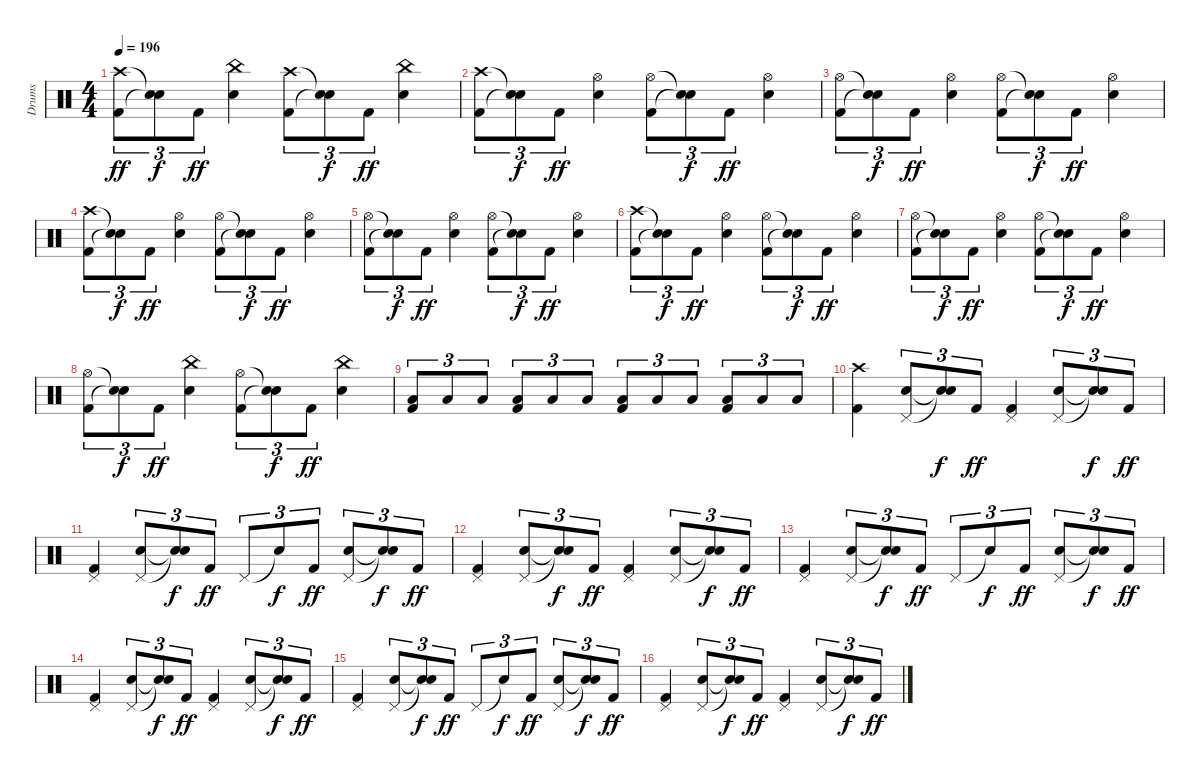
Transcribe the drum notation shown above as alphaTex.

\track ("Drums" "Drums") {instrument percussion}
\staff {score}
\articulation defaults
\ts (4 4)
\tempo 196
\clef neutral
\ks c
("Crash high (hit)" "Kick (hit) 2").8{tu (3 2) dy ff} ("Snare (hit)"{t} "Snare (hit)"{t}).8{tu (3 2) dy f} "Kick (hit) 2".8{tu (3 2) dy ff} ("China (hit)" "Electric Snare (hit)").4 ("Crash high (hit)" "Kick (hit) 2").8{tu (3 2)} ("Snare (hit)"{t} "Snare (hit)"{t}).8{tu (3 2) dy f} "Kick (hit) 2".8{tu (3 2) dy ff} ("China (hit)" "Electric Snare (hit)").4 |
("Kick (hit) 2" "Crash high (hit)").8{tu (3 2)} ("Snare (hit)"{t} "Snare (hit)"{t}).8{tu (3 2) dy f} "Kick (hit) 2".8{tu (3 2) dy ff} ("Hi-Hat (open)" "Electric Snare (hit)").4 ("Kick (hit) 2" "Hi-Hat (open)").8{tu (3 2)} ("Snare (hit)"{t} "Snare (hit)"{t}).8{tu (3 2) dy f} "Kick (hit) 2".8{tu (3 2) dy ff} ("Hi-Hat (open)" "Electric Snare (hit)").4 |
("Kick (hit) 2" "Hi-Hat (open)").8{tu (3 2)} ("Snare (hit)"{t} "Snare (hit)"{t}).8{tu (3 2) dy f} "Kick (hit) 2".8{tu (3 2) dy ff} ("Hi-Hat (open)" "Electric Snare (hit)").4 ("Kick (hit) 2" "Hi-Hat (open)").8{tu (3 2)} ("Snare (hit)"{t} "Snare (hit)"{t}).8{tu (3 2) dy f} "Kick (hit) 2".8{tu (3 2) dy ff} ("Hi-Hat (open)" "Electric Snare (hit)").4 |
("Kick (hit) 2" "Crash high (hit)").8{tu (3 2)} ("Snare (hit)"{t} "Snare (hit)"{t}).8{tu (3 2) dy f} "Kick (hit) 2".8{tu (3 2) dy ff} ("Hi-Hat (open)" "Electric Snare (hit)").4 ("Kick (hit) 2" "Hi-Hat (open)").8{tu (3 2)} ("Snare (hit)"{t} "Snare (hit)"{t}).8{tu (3 2) dy f} "Kick (hit) 2".8{tu (3 2) dy ff} ("Hi-Hat (open)" "Electric Snare (hit)").4 |
("Kick (hit) 2" "Hi-Hat (open)").8{tu (3 2)} ("Snare (hit)"{t} "Snare (hit)"{t}).8{tu (3 2) dy f} "Kick (hit) 2".8{tu (3 2) dy ff} ("Hi-Hat (open)" "Electric Snare (hit)").4 ("Kick (hit) 2" "Hi-Hat (open)").8{tu (3 2)} ("Snare (hit)"{t} "Snare (hit)"{t}).8{tu (3 2) dy f} "Kick (hit) 2".8{tu (3 2) dy ff} ("Hi-Hat (open)" "Electric Snare (hit)").4 |
("Kick (hit) 2" "Crash high (hit)").8{tu (3 2)} ("Snare (hit)"{t} "Snare (hit)"{t}).8{tu (3 2) dy f} "Kick (hit) 2".8{tu (3 2) dy ff} ("Hi-Hat (open)" "Electric Snare (hit)").4 ("Kick (hit) 2" "Hi-Hat (open)").8{tu (3 2)} ("Snare (hit)"{t} "Snare (hit)"{t}).8{tu (3 2) dy f} "Kick (hit) 2".8{tu (3 2) dy ff} ("Hi-Hat (open)" "Electric Snare (hit)").4 |
("Kick (hit) 2" "Hi-Hat (open)").8{tu (3 2)} ("Snare (hit)"{t} "Snare (hit)"{t}).8{tu (3 2) dy f} "Kick (hit) 2".8{tu (3 2) dy ff} ("Hi-Hat (open)" "Electric Snare (hit)").4 ("Kick (hit) 2" "Hi-Hat (open)").8{tu (3 2)} ("Snare (hit)"{t} "Snare (hit)"{t}).8{tu (3 2) dy f} "Kick (hit) 2".8{tu (3 2) dy ff} ("Hi-Hat (open)" "Electric Snare (hit)").4 |
("Hi-Hat (open)" "Kick (hit) 2").8{tu (3 2)} ("Snare (hit)"{t} "Snare (hit)"{t}).8{tu (3 2) dy f} "Kick (hit) 2".8{tu (3 2) dy ff} ("China (hit)" "Electric Snare (hit)").4 ("Hi-Hat (open)" "Kick (hit) 2").8{tu (3 2)} ("Snare (hit)"{t} "Snare (hit)"{t}).8{tu (3 2) dy f} "Kick (hit) 2".8{tu (3 2) dy ff} ("China (hit)" "Electric Snare (hit)").4 |
("Kick (hit) 2" "Low Tom (hit)").8{tu (3 2)} "Low Tom (hit)".8{tu (3 2)} "Low Tom (hit)".8{tu (3 2)} ("Kick (hit) 2" "Low Tom (hit)").8{tu (3 2)} "Low Tom (hit)".8{tu (3 2)} "Low Tom (hit)".8{tu (3 2)} ("Kick (hit) 2" "Low Tom (hit)").8{tu (3 2)} "Low Tom (hit)".8{tu (3 2)} "Low Tom (hit)".8{tu (3 2)} ("Kick (hit) 2" "Low Tom (hit)").8{tu (3 2)} "Low Tom (hit)".8{tu (3 2)} "Low Tom (hit)".8{tu (3 2)} |
("Crash high (hit)" "Kick (hit) 2").4 ("Pedal Hi-Hat (hit)" "Electric Snare (hit)").8{tu (3 2)} ("Snare (hit)"{t} "Snare (hit)"{t}).8{tu (3 2) dy f} "Kick (hit) 2".8{tu (3 2) dy ff} ("Pedal Hi-Hat (hit)" "Kick (hit) 2").4 ("Pedal Hi-Hat (hit)" "Electric Snare (hit)").8{tu (3 2)} ("Snare (hit)"{t} "Snare (hit)"{t}).8{tu (3 2) dy f} "Kick (hit) 2".8{tu (3 2) dy ff} |
("Pedal Hi-Hat (hit)" "Kick (hit) 2").4 ("Pedal Hi-Hat (hit)" "Electric Snare (hit)").8{tu (3 2)} ("Snare (hit)"{t} "Snare (hit)"{t}).8{tu (3 2) dy f} "Kick (hit) 2".8{tu (3 2) dy ff} "Pedal Hi-Hat (hit)".8{tu (3 2)} "Snare (hit)"{t}.8{tu (3 2) dy f} "Kick (hit) 2".8{tu (3 2) dy ff} ("Pedal Hi-Hat (hit)" "Electric Snare (hit)").8{tu (3 2)} ("Snare (hit)"{t} "Snare (hit)"{t}).8{tu (3 2) dy f} "Kick (hit) 2".8{tu (3 2) dy ff} |
("Pedal Hi-Hat (hit)" "Kick (hit) 2").4 ("Pedal Hi-Hat (hit)" "Electric Snare (hit)").8{tu (3 2)} ("Snare (hit)"{t} "Snare (hit)"{t}).8{tu (3 2) dy f} "Kick (hit) 2".8{tu (3 2) dy ff} ("Pedal Hi-Hat (hit)" "Kick (hit) 2").4 ("Pedal Hi-Hat (hit)" "Electric Snare (hit)").8{tu (3 2)} ("Snare (hit)"{t} "Snare (hit)"{t}).8{tu (3 2) dy f} "Kick (hit) 2".8{tu (3 2) dy ff} |
("Pedal Hi-Hat (hit)" "Kick (hit) 2").4 ("Pedal Hi-Hat (hit)" "Electric Snare (hit)").8{tu (3 2)} ("Snare (hit)"{t} "Snare (hit)"{t}).8{tu (3 2) dy f} "Kick (hit) 2".8{tu (3 2) dy ff} "Pedal Hi-Hat (hit)".8{tu (3 2)} "Snare (hit)"{t}.8{tu (3 2) dy f} "Kick (hit) 2".8{tu (3 2) dy ff} ("Pedal Hi-Hat (hit)" "Electric Snare (hit)").8{tu (3 2)} ("Snare (hit)"{t} "Snare (hit)"{t}).8{tu (3 2) dy f} "Kick (hit) 2".8{tu (3 2) dy ff} |
("Pedal Hi-Hat (hit)" "Kick (hit) 2").4 ("Pedal Hi-Hat (hit)" "Electric Snare (hit)").8{tu (3 2)} ("Snare (hit)"{t} "Snare (hit)"{t}).8{tu (3 2) dy f} "Kick (hit) 2".8{tu (3 2) dy ff} ("Pedal Hi-Hat (hit)" "Kick (hit) 2").4 ("Pedal Hi-Hat (hit)" "Electric Snare (hit)").8{tu (3 2)} ("Snare (hit)"{t} "Snare (hit)"{t}).8{tu (3 2) dy f} "Kick (hit) 2".8{tu (3 2) dy ff} |
("Pedal Hi-Hat (hit)" "Kick (hit) 2").4 ("Pedal Hi-Hat (hit)" "Electric Snare (hit)").8{tu (3 2)} ("Snare (hit)"{t} "Snare (hit)"{t}).8{tu (3 2) dy f} "Kick (hit) 2".8{tu (3 2) dy ff} "Pedal Hi-Hat (hit)".8{tu (3 2)} "Snare (hit)"{t}.8{tu (3 2) dy f} "Kick (hit) 2".8{tu (3 2) dy ff} ("Pedal Hi-Hat (hit)" "Electric Snare (hit)").8{tu (3 2)} ("Snare (hit)"{t} "Snare (hit)"{t}).8{tu (3 2) dy f} "Kick (hit) 2".8{tu (3 2) dy ff} |
("Pedal Hi-Hat (hit)" "Kick (hit) 2").4 ("Pedal Hi-Hat (hit)" "Electric Snare (hit)").8{tu (3 2)} ("Snare (hit)"{t} "Snare (hit)"{t}).8{tu (3 2) dy f} "Kick (hit) 2".8{tu (3 2) dy ff} ("Pedal Hi-Hat (hit)" "Kick (hit) 2").4 ("Pedal Hi-Hat (hit)" "Electric Snare (hit)").8{tu (3 2)} ("Snare (hit)"{t} "Snare (hit)"{t}).8{tu (3 2) dy f} "Kick (hit) 2".8{tu (3 2) dy ff}
